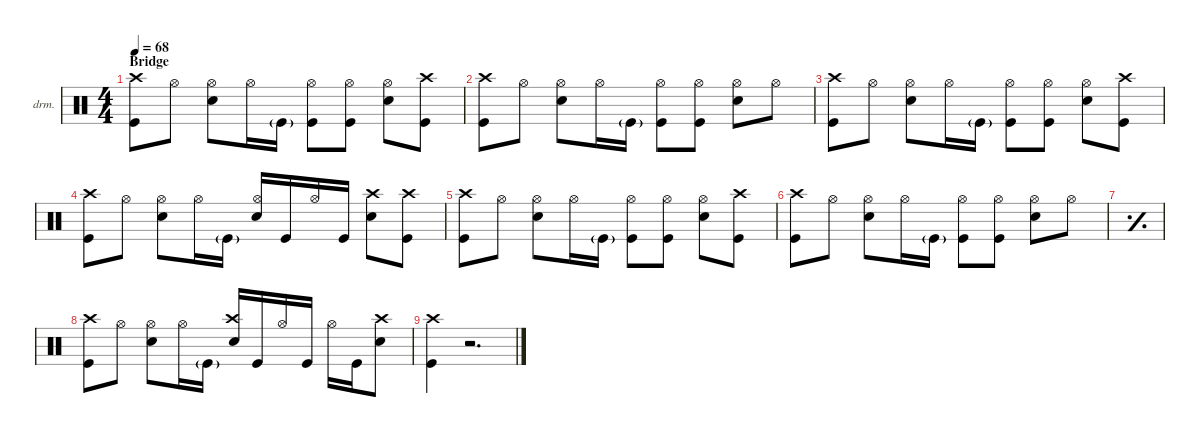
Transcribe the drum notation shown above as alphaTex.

\defaultSystemsLayout 4
\hideDynamics
\bracketExtendMode nobrackets
\firstSystemTrackNameOrientation horizontal
\track ("Drumkit" "drm.") {defaultSystemsLayout 4 instrument percussion}
\staff {score}
\articulation defaults
\ts (4 4)
\section ("" "Bridge")
\tempo 68
\clef neutral
\scale
0.265955
\ks c
("Kick (hit)" "Crash high (hit)").8{dy mf beam Down} "Hi-Hat (open)".8{beam Down} ("Hi-Hat (open)" "Snare (hit) 2").8{beam Down} "Hi-Hat (open)".16{beam Down} "Kick (hit)"{g}.16{beam Down} ("Kick (hit)" "Hi-Hat (open)").8{beam Down} ("Hi-Hat (open)" "Kick (hit)").8{beam Down} ("Hi-Hat (open)" "Snare (hit) 2").8{beam Down} ("Kick (hit)" "Crash high (hit)").8{beam Down} |
\scale
0.244682 ("Kick (hit)" "Crash high (hit)").8{beam Down} "Hi-Hat (open)".8{beam Down} ("Hi-Hat (open)" "Snare (hit) 2").8{beam Down} "Hi-Hat (open)".16{beam Down} "Kick (hit)"{g}.16{beam Down} ("Kick (hit)" "Hi-Hat (open)").8{beam Down} ("Kick (hit)" "Hi-Hat (open)").8{beam Down} ("Hi-Hat (open)" "Snare (hit) 2").8{beam Down} "Hi-Hat (open)".8{beam Down} |
\scale
0.244682 ("Kick (hit)" "Crash high (hit)").8{beam Down} "Hi-Hat (open)".8{beam Down} ("Hi-Hat (open)" "Snare (hit) 2").8{beam Down} "Hi-Hat (open)".16{beam Down} "Kick (hit)"{g}.16{beam Down} ("Kick (hit)" "Hi-Hat (open)").8{beam Down} ("Hi-Hat (open)" "Kick (hit)").8{beam Down} ("Hi-Hat (open)" "Snare (hit) 2").8{beam Down} ("Kick (hit)" "Crash high (hit)").8{beam Down} |
\scale
0.244682 ("Kick (hit)" "Crash high (hit)").8{beam Down} "Hi-Hat (open)".8{beam Down} ("Hi-Hat (open)" "Snare (hit) 2").8{beam Down} "Hi-Hat (open)".16{beam Down} "Kick (hit)"{g}.16{beam Down} ("Hi-Hat (open)" "Snare (hit) 2").16{beam Up} "Kick (hit)".16{beam Up} "Hi-Hat (open)".16{beam Up} "Kick (hit)".16{beam Up} ("Snare (hit) 2" "Crash high (hit)").8{beam Down} ("Kick (hit)" "Crash high (hit)").8{beam Down} |
\scale
0.265955 ("Kick (hit)" "Crash high (hit)").8{beam Down} "Hi-Hat (open)".8{beam Down} ("Hi-Hat (open)" "Snare (hit) 2").8{beam Down} "Hi-Hat (open)".16{beam Down} "Kick (hit)"{g}.16{beam Down} ("Kick (hit)" "Hi-Hat (open)").8{beam Down} ("Hi-Hat (open)" "Kick (hit)").8{beam Down} ("Hi-Hat (open)" "Snare (hit) 2").8{beam Down} ("Kick (hit)" "Crash high (hit)").8{beam Down} |
\scale
0.244682 ("Kick (hit)" "Crash high (hit)").8{beam Down} "Hi-Hat (open)".8{beam Down} ("Hi-Hat (open)" "Snare (hit) 2").8{beam Down} "Hi-Hat (open)".16{beam Down} "Kick (hit)"{g}.16{beam Down} ("Kick (hit)" "Hi-Hat (open)").8{beam Down} ("Kick (hit)" "Hi-Hat (open)").8{beam Down} ("Hi-Hat (open)" "Snare (hit) 2").8{beam Down} "Hi-Hat (open)".8{beam Down} |
\simile simple
\scale
0.244682 |
\simile none
\scale
0.244682 ("Kick (hit)" "Crash high (hit)").8{beam Down} "Hi-Hat (open)".8{beam Down} ("Hi-Hat (open)" "Snare (hit) 2").8{beam Down} "Hi-Hat (open)".16{beam Down} "Kick (hit)"{g}.16{beam Down} ("Snare (hit) 2" "Crash high (hit)").16{beam Up} "Kick (hit)".16{beam Up} "Hi-Hat (open)".16{beam Up} "Kick (hit)".16{beam Up} "Hi-Hat (open)".16{beam Down} "Kick (hit)".16{beam Down} ("Crash high (hit)" "Snare (hit) 2").8{beam Down} |
("Kick (hit)" "Crash high (hit)").4{beam Down} r.2{d beam Down}
